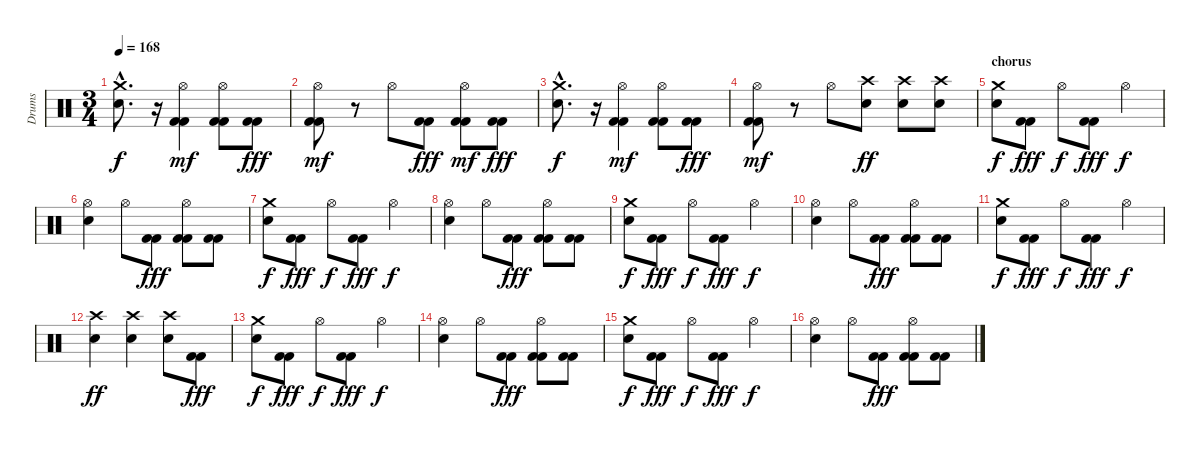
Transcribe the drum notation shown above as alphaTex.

\track ("Drums" "Drums") {instrument percussion}
\staff {score}
\articulation defaults
\ts (3 4)
\tempo 168
\clef neutral
\ks c
("Crash medium (hit)"{hac} "Electric Snare (hit)"{hac}).8{d dy f} r.16 ("Kick (hit) 2" "Kick (hit) 2" "Hi-Hat (open)").4{dy mf} ("Kick (hit) 2" "Kick (hit) 2" "Hi-Hat (open)").8 ("Kick (hit) 2" "Kick (hit) 2").8{dy fff} |
("Kick (hit) 2" "Kick (hit) 2" "Hi-Hat (open)").8{dy mf} r.8 "Hi-Hat (open)".8 ("Kick (hit) 2" "Kick (hit) 2").8{dy fff} ("Kick (hit) 2" "Kick (hit) 2" "Hi-Hat (open)").8{dy mf} ("Kick (hit) 2" "Kick (hit) 2").8{dy fff} |
("Crash medium (hit)"{hac} "Electric Snare (hit)"{hac}).8{d dy f} r.16 ("Kick (hit) 2" "Kick (hit) 2" "Hi-Hat (open)").4{dy mf} ("Kick (hit) 2" "Kick (hit) 2" "Hi-Hat (open)").8 ("Kick (hit) 2" "Kick (hit) 2").8{dy fff} |
("Kick (hit) 2" "Kick (hit) 2" "Hi-Hat (open)").8{dy mf} r.8 "Hi-Hat (open)".8 ("Crash high (hit)" "Electric Snare (hit)").8{dy ff} ("Crash high (hit)" "Electric Snare (hit)").8 ("Crash high (hit)" "Electric Snare (hit)").8 |
\section ("" "chorus")
("Crash medium (hit)" "Electric Snare (hit)").8{dy f} ("Kick (hit) 2" "Kick (hit) 2").8{dy fff} "Hi-Hat (open)".8{dy f} ("Kick (hit) 2" "Kick (hit) 2").8{dy fff} "Hi-Hat (open)".4{dy f} |
("Electric Snare (hit)" "Hi-Hat (open)").4 "Hi-Hat (open)".8 ("Kick (hit) 2" "Kick (hit) 2").8{dy fff} ("Hi-Hat (open)" "Kick (hit) 2" "Kick (hit) 2").8 ("Kick (hit) 2" "Kick (hit) 2").8 |
("Crash medium (hit)" "Electric Snare (hit)").8{dy f} ("Kick (hit) 2" "Kick (hit) 2").8{dy fff} "Hi-Hat (open)".8{dy f} ("Kick (hit) 2" "Kick (hit) 2").8{dy fff} "Hi-Hat (open)".4{dy f} |
("Electric Snare (hit)" "Hi-Hat (open)").4 "Hi-Hat (open)".8 ("Kick (hit) 2" "Kick (hit) 2").8{dy fff} ("Hi-Hat (open)" "Kick (hit) 2" "Kick (hit) 2").8 ("Kick (hit) 2" "Kick (hit) 2").8 |
("Crash medium (hit)" "Electric Snare (hit)").8{dy f} ("Kick (hit) 2" "Kick (hit) 2").8{dy fff} "Hi-Hat (open)".8{dy f} ("Kick (hit) 2" "Kick (hit) 2").8{dy fff} "Hi-Hat (open)".4{dy f} |
("Electric Snare (hit)" "Hi-Hat (open)").4 "Hi-Hat (open)".8 ("Kick (hit) 2" "Kick (hit) 2").8{dy fff} ("Hi-Hat (open)" "Kick (hit) 2" "Kick (hit) 2").8 ("Kick (hit) 2" "Kick (hit) 2").8 |
("Crash medium (hit)" "Electric Snare (hit)").8{dy f} ("Kick (hit) 2" "Kick (hit) 2").8{dy fff} "Hi-Hat (open)".8{dy f} ("Kick (hit) 2" "Kick (hit) 2").8{dy fff} "Hi-Hat (open)".4{dy f} |
("Electric Snare (hit)" "Crash high (hit)").4{dy ff} ("Electric Snare (hit)" "Crash high (hit)").4 ("Electric Snare (hit)" "Crash high (hit)").8 ("Kick (hit) 2" "Kick (hit) 2").8{dy fff} |
("Crash medium (hit)" "Electric Snare (hit)").8{dy f} ("Kick (hit) 2" "Kick (hit) 2").8{dy fff} "Hi-Hat (open)".8{dy f} ("Kick (hit) 2" "Kick (hit) 2").8{dy fff} "Hi-Hat (open)".4{dy f} |
("Electric Snare (hit)" "Hi-Hat (open)").4 "Hi-Hat (open)".8 ("Kick (hit) 2" "Kick (hit) 2").8{dy fff} ("Hi-Hat (open)" "Kick (hit) 2" "Kick (hit) 2").8 ("Kick (hit) 2" "Kick (hit) 2").8 |
("Crash medium (hit)" "Electric Snare (hit)").8{dy f} ("Kick (hit) 2" "Kick (hit) 2").8{dy fff} "Hi-Hat (open)".8{dy f} ("Kick (hit) 2" "Kick (hit) 2").8{dy fff} "Hi-Hat (open)".4{dy f} |
("Electric Snare (hit)" "Hi-Hat (open)").4 "Hi-Hat (open)".8 ("Kick (hit) 2" "Kick (hit) 2").8{dy fff} ("Hi-Hat (open)" "Kick (hit) 2" "Kick (hit) 2").8 ("Kick (hit) 2" "Kick (hit) 2").8
